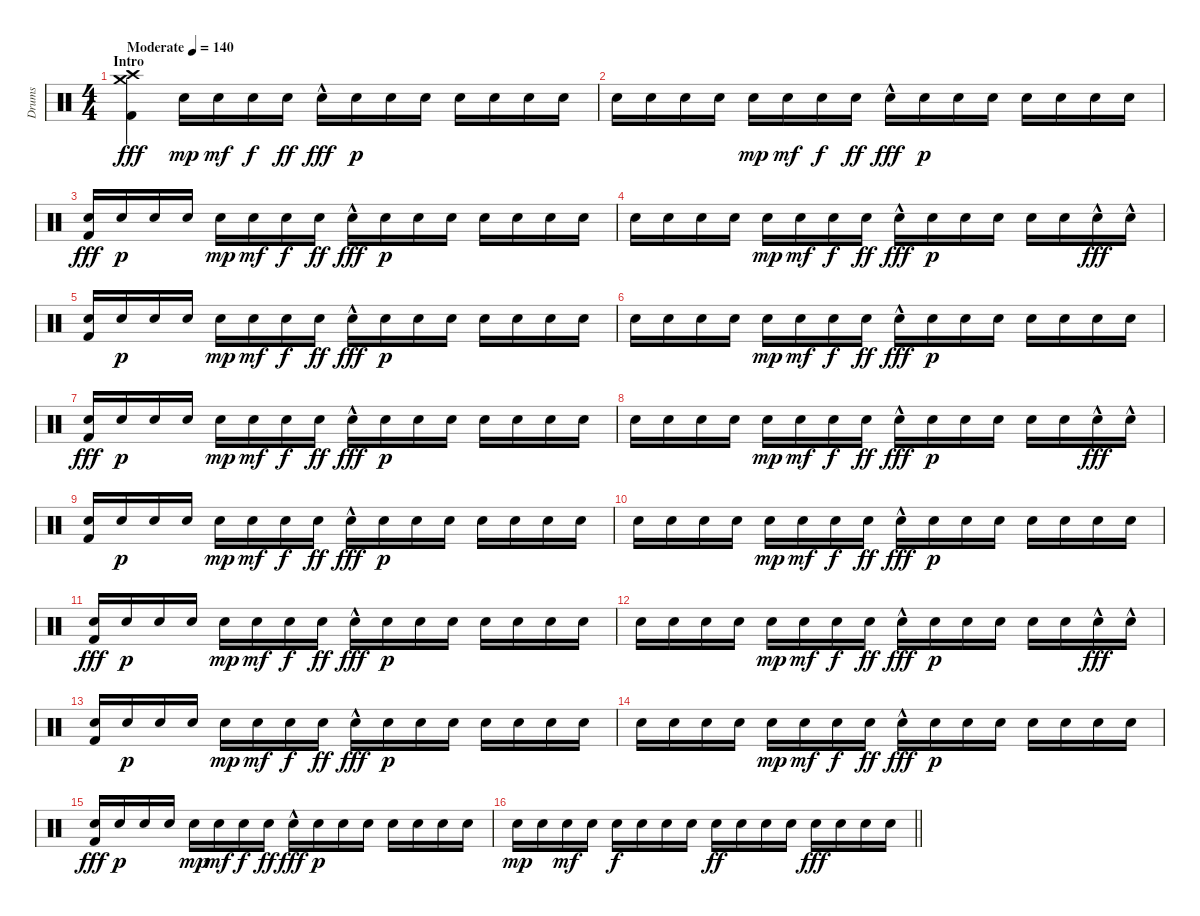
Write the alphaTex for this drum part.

\track ("Drums" "Drums") {instrument percussion}
\staff {score}
\articulation defaults
\ts (4 4)
\section ("" "Intro")
\tempo (140 "Moderate")
\clef neutral
\ks c
("Crash high (hit)" "Crash medium (hit)" "Kick (hit) 2").4{dy fff} "Snare (hit) 2".16{dy mp} "Snare (hit) 2".16{dy mf} "Snare (hit) 2".16{dy f} "Snare (hit) 2".16{dy ff} "Snare (hit) 2"{hac}.16{dy fff} "Snare (hit) 2".16{dy p} "Snare (hit) 2".16 "Snare (hit) 2".16 "Snare (hit) 2".16 "Snare (hit) 2".16 "Snare (hit) 2".16 "Snare (hit) 2".16 |
"Snare (hit) 2".16 "Snare (hit) 2".16 "Snare (hit) 2".16 "Snare (hit) 2".16 "Snare (hit) 2".16{dy mp} "Snare (hit) 2".16{dy mf} "Snare (hit) 2".16{dy f} "Snare (hit) 2".16{dy ff} "Snare (hit) 2"{hac}.16{dy fff} "Snare (hit) 2".16{dy p} "Snare (hit) 2".16 "Snare (hit) 2".16 "Snare (hit) 2".16 "Snare (hit) 2".16 "Snare (hit) 2".16 "Snare (hit) 2".16 |
("Snare (hit) 2" "Kick (hit) 2").16{dy fff} "Snare (hit) 2".16{dy p} "Snare (hit) 2".16 "Snare (hit) 2".16 "Snare (hit) 2".16{dy mp} "Snare (hit) 2".16{dy mf} "Snare (hit) 2".16{dy f} "Snare (hit) 2".16{dy ff} "Snare (hit) 2"{hac}.16{dy fff} "Snare (hit) 2".16{dy p} "Snare (hit) 2".16 "Snare (hit) 2".16 "Snare (hit) 2".16 "Snare (hit) 2".16 "Snare (hit) 2".16 "Snare (hit) 2".16 |
"Snare (hit) 2".16 "Snare (hit) 2".16 "Snare (hit) 2".16 "Snare (hit) 2".16 "Snare (hit) 2".16{dy mp} "Snare (hit) 2".16{dy mf} "Snare (hit) 2".16{dy f} "Snare (hit) 2".16{dy ff} "Snare (hit) 2"{hac}.16{dy fff} "Snare (hit) 2".16{dy p} "Snare (hit) 2".16 "Snare (hit) 2".16 "Snare (hit) 2".16 "Snare (hit) 2".16 "Snare (hit) 2"{hac}.16{dy fff} "Snare (hit) 2"{hac}.16 |
("Snare (hit) 2" "Kick (hit) 2").16 "Snare (hit) 2".16{dy p} "Snare (hit) 2".16 "Snare (hit) 2".16 "Snare (hit) 2".16{dy mp} "Snare (hit) 2".16{dy mf} "Snare (hit) 2".16{dy f} "Snare (hit) 2".16{dy ff} "Snare (hit) 2"{hac}.16{dy fff} "Snare (hit) 2".16{dy p} "Snare (hit) 2".16 "Snare (hit) 2".16 "Snare (hit) 2".16 "Snare (hit) 2".16 "Snare (hit) 2".16 "Snare (hit) 2".16 |
"Snare (hit) 2".16 "Snare (hit) 2".16 "Snare (hit) 2".16 "Snare (hit) 2".16 "Snare (hit) 2".16{dy mp} "Snare (hit) 2".16{dy mf} "Snare (hit) 2".16{dy f} "Snare (hit) 2".16{dy ff} "Snare (hit) 2"{hac}.16{dy fff} "Snare (hit) 2".16{dy p} "Snare (hit) 2".16 "Snare (hit) 2".16 "Snare (hit) 2".16 "Snare (hit) 2".16 "Snare (hit) 2".16 "Snare (hit) 2".16 |
("Snare (hit) 2" "Kick (hit) 2").16{dy fff} "Snare (hit) 2".16{dy p} "Snare (hit) 2".16 "Snare (hit) 2".16 "Snare (hit) 2".16{dy mp} "Snare (hit) 2".16{dy mf} "Snare (hit) 2".16{dy f} "Snare (hit) 2".16{dy ff} "Snare (hit) 2"{hac}.16{dy fff} "Snare (hit) 2".16{dy p} "Snare (hit) 2".16 "Snare (hit) 2".16 "Snare (hit) 2".16 "Snare (hit) 2".16 "Snare (hit) 2".16 "Snare (hit) 2".16 |
"Snare (hit) 2".16 "Snare (hit) 2".16 "Snare (hit) 2".16 "Snare (hit) 2".16 "Snare (hit) 2".16{dy mp} "Snare (hit) 2".16{dy mf} "Snare (hit) 2".16{dy f} "Snare (hit) 2".16{dy ff} "Snare (hit) 2"{hac}.16{dy fff} "Snare (hit) 2".16{dy p} "Snare (hit) 2".16 "Snare (hit) 2".16 "Snare (hit) 2".16 "Snare (hit) 2".16 "Snare (hit) 2"{hac}.16{dy fff} "Snare (hit) 2"{hac}.16 |
("Snare (hit) 2" "Kick (hit) 2").16 "Snare (hit) 2".16{dy p} "Snare (hit) 2".16 "Snare (hit) 2".16 "Snare (hit) 2".16{dy mp} "Snare (hit) 2".16{dy mf} "Snare (hit) 2".16{dy f} "Snare (hit) 2".16{dy ff} "Snare (hit) 2"{hac}.16{dy fff} "Snare (hit) 2".16{dy p} "Snare (hit) 2".16 "Snare (hit) 2".16 "Snare (hit) 2".16 "Snare (hit) 2".16 "Snare (hit) 2".16 "Snare (hit) 2".16 |
"Snare (hit) 2".16 "Snare (hit) 2".16 "Snare (hit) 2".16 "Snare (hit) 2".16 "Snare (hit) 2".16{dy mp} "Snare (hit) 2".16{dy mf} "Snare (hit) 2".16{dy f} "Snare (hit) 2".16{dy ff} "Snare (hit) 2"{hac}.16{dy fff} "Snare (hit) 2".16{dy p} "Snare (hit) 2".16 "Snare (hit) 2".16 "Snare (hit) 2".16 "Snare (hit) 2".16 "Snare (hit) 2".16 "Snare (hit) 2".16 |
("Snare (hit) 2" "Kick (hit) 2").16{dy fff} "Snare (hit) 2".16{dy p} "Snare (hit) 2".16 "Snare (hit) 2".16 "Snare (hit) 2".16{dy mp} "Snare (hit) 2".16{dy mf} "Snare (hit) 2".16{dy f} "Snare (hit) 2".16{dy ff} "Snare (hit) 2"{hac}.16{dy fff} "Snare (hit) 2".16{dy p} "Snare (hit) 2".16 "Snare (hit) 2".16 "Snare (hit) 2".16 "Snare (hit) 2".16 "Snare (hit) 2".16 "Snare (hit) 2".16 |
"Snare (hit) 2".16 "Snare (hit) 2".16 "Snare (hit) 2".16 "Snare (hit) 2".16 "Snare (hit) 2".16{dy mp} "Snare (hit) 2".16{dy mf} "Snare (hit) 2".16{dy f} "Snare (hit) 2".16{dy ff} "Snare (hit) 2"{hac}.16{dy fff} "Snare (hit) 2".16{dy p} "Snare (hit) 2".16 "Snare (hit) 2".16 "Snare (hit) 2".16 "Snare (hit) 2".16 "Snare (hit) 2"{hac}.16{dy fff} "Snare (hit) 2"{hac}.16 |
("Snare (hit) 2" "Kick (hit) 2").16 "Snare (hit) 2".16{dy p} "Snare (hit) 2".16 "Snare (hit) 2".16 "Snare (hit) 2".16{dy mp} "Snare (hit) 2".16{dy mf} "Snare (hit) 2".16{dy f} "Snare (hit) 2".16{dy ff} "Snare (hit) 2"{hac}.16{dy fff} "Snare (hit) 2".16{dy p} "Snare (hit) 2".16 "Snare (hit) 2".16 "Snare (hit) 2".16 "Snare (hit) 2".16 "Snare (hit) 2".16 "Snare (hit) 2".16 |
"Snare (hit) 2".16 "Snare (hit) 2".16 "Snare (hit) 2".16 "Snare (hit) 2".16 "Snare (hit) 2".16{dy mp} "Snare (hit) 2".16{dy mf} "Snare (hit) 2".16{dy f} "Snare (hit) 2".16{dy ff} "Snare (hit) 2"{hac}.16{dy fff} "Snare (hit) 2".16{dy p} "Snare (hit) 2".16 "Snare (hit) 2".16 "Snare (hit) 2".16 "Snare (hit) 2".16 "Snare (hit) 2".16 "Snare (hit) 2".16 |
("Snare (hit) 2" "Kick (hit) 2").16{dy fff} "Snare (hit) 2".16{dy p} "Snare (hit) 2".16 "Snare (hit) 2".16 "Snare (hit) 2".16{dy mp} "Snare (hit) 2".16{dy mf} "Snare (hit) 2".16{dy f} "Snare (hit) 2".16{dy ff} "Snare (hit) 2"{hac}.16{dy fff} "Snare (hit) 2".16{dy p} "Snare (hit) 2".16 "Snare (hit) 2".16 "Snare (hit) 2".16 "Snare (hit) 2".16 "Snare (hit) 2".16 "Snare (hit) 2".16 |
\barLineRight lightlight "Snare (hit) 2".16{dy mp} "Snare (hit) 2".16 "Snare (hit) 2".16{dy mf} "Snare (hit) 2".16 "Snare (hit) 2".16{dy f} "Snare (hit) 2".16 "Snare (hit) 2".16 "Snare (hit) 2".16 "Snare (hit) 2".16{dy ff} "Snare (hit) 2".16 "Snare (hit) 2".16 "Snare (hit) 2".16 "Snare (hit) 2".16{dy fff} "Snare (hit) 2".16 "Snare (hit) 2".16 "Snare (hit) 2".16
